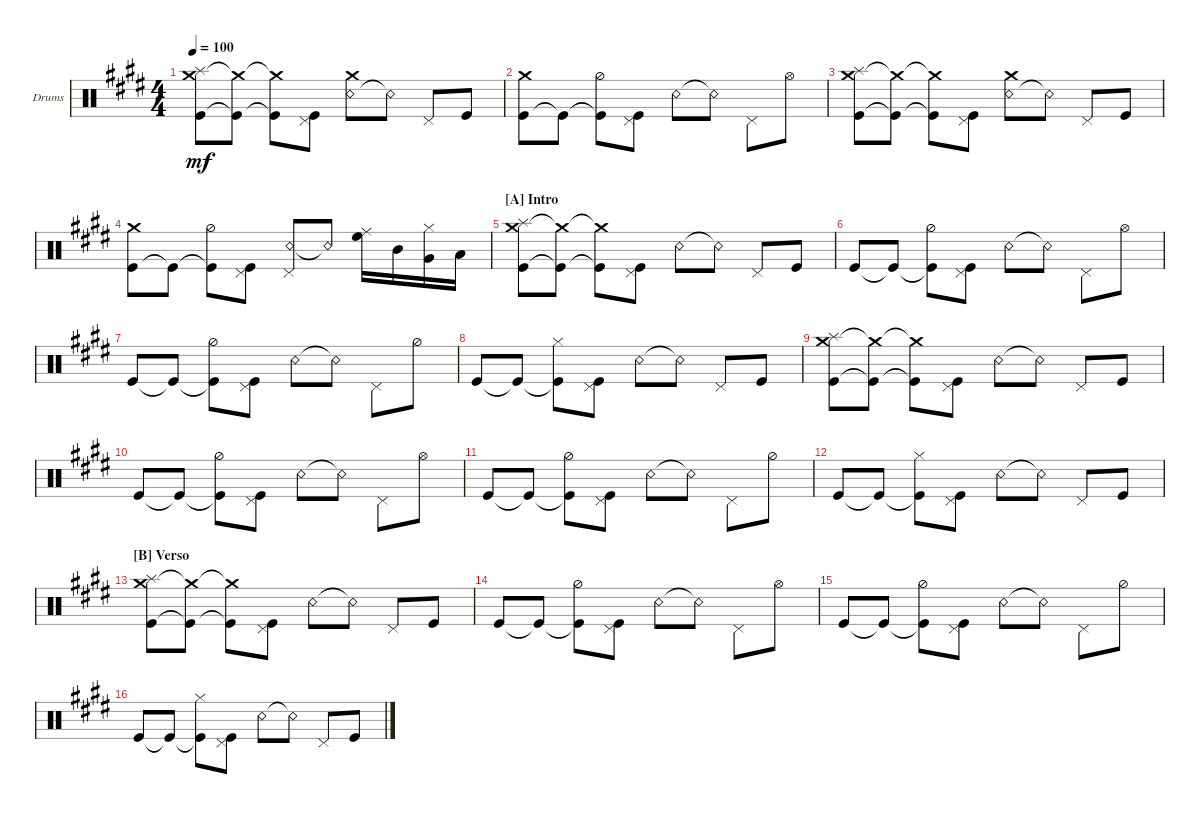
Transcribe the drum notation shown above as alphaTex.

\defaultSystemsLayout 4
\bracketExtendMode groupsimilarinstruments
\firstSystemTrackNameOrientation horizontal
\otherSystemsTrackNameOrientation horizontal
\track ("Drumkit" "Drums") {multiBarRest instrument percussion}
\staff {score}
\articulation defaults
\ts (4 4)
\tempo 100
\clef neutral
\ks e
("Kick (hit)" "Crash medium (hit)" "Splash (hit)").8{dy mf} ("Kick (hit)"{t} "Crash medium (hit)"{t}).8 ("Kick (hit)"{t} "Crash medium (hit)"{t}).8 ("Kick (hit)" "Pedal Hi-Hat (hit)").8 ("Snare (rim shot)" "Crash medium (hit)").8 "Snare (rim shot)"{t}.8 "Pedal Hi-Hat (hit)".8 "Kick (hit)".8 |
("Kick (hit)" "Crash medium (hit)").8 "Kick (hit)"{t}.8 ("Kick (hit)"{t} "Hi-Hat (half)").8 ("Kick (hit)" "Pedal Hi-Hat (hit)").8 "Snare (rim shot)".8 "Snare (rim shot)"{t}.8 "Pedal Hi-Hat (hit)".8 "Hi-Hat (open)".8 |
("Kick (hit)" "Crash medium (hit)" "Splash (hit)").8 ("Kick (hit)"{t} "Crash medium (hit)"{t}).8 ("Kick (hit)"{t} "Crash medium (hit)"{t}).8 ("Kick (hit)" "Pedal Hi-Hat (hit)").8 ("Snare (rim shot)" "Crash medium (hit)").8 "Snare (rim shot)"{t}.8 "Pedal Hi-Hat (hit)".8 "Kick (hit)".8 |
("Kick (hit)" "Crash medium (hit)").8 "Kick (hit)"{t}.8 ("Kick (hit)"{t} "Hi-Hat (half)").8 ("Kick (hit)" "Pedal Hi-Hat (hit)").8 ("Snare (rim shot)" "Pedal Hi-Hat (hit)").8 "Snare (rim shot)"{t}.8 ("High Floor Tom (hit)" "Ride (middle)").16 "Mid Tom (hit)".16 ("Very Low Tom (hit)" "Hi-Hat (closed)").16 "Low Tom (hit)".16 |
\section ("A" "Intro")
("Kick (hit)" "Crash medium (hit)" "Splash (hit)").8 ("Kick (hit)"{t} "Crash medium (hit)"{t}).8 ("Kick (hit)"{t} "Crash medium (hit)"{t}).8 ("Kick (hit)" "Pedal Hi-Hat (hit)").8 "Snare (rim shot)".8 "Snare (rim shot)"{t}.8 "Pedal Hi-Hat (hit)".8 "Kick (hit)".8 |
"Kick (hit)".8 "Kick (hit)"{t}.8 ("Kick (hit)"{t} "Hi-Hat (half)").8 ("Kick (hit)" "Pedal Hi-Hat (hit)").8 "Snare (rim shot)".8 "Snare (rim shot)"{t}.8 "Pedal Hi-Hat (hit)".8 "Hi-Hat (open)".8 |
"Kick (hit)".8 "Kick (hit)"{t}.8 ("Kick (hit)"{t} "Hi-Hat (half)").8 ("Kick (hit)" "Pedal Hi-Hat (hit)").8 "Snare (rim shot)".8 "Snare (rim shot)"{t}.8 "Pedal Hi-Hat (hit)".8 "Hi-Hat (half)".8 |
"Kick (hit)".8 "Kick (hit)"{t}.8 ("Kick (hit)"{t} "Hi-Hat (closed)").8 ("Kick (hit)" "Pedal Hi-Hat (hit)").8 "Snare (rim shot)".8 "Snare (rim shot)"{t}.8 "Pedal Hi-Hat (hit)".8 "Kick (hit)".8 |
("Kick (hit)" "Crash medium (hit)" "Splash (hit)").8 ("Kick (hit)"{t} "Crash medium (hit)"{t}).8 ("Kick (hit)"{t} "Crash medium (hit)"{t}).8 ("Kick (hit)" "Pedal Hi-Hat (hit)").8 "Snare (rim shot)".8 "Snare (rim shot)"{t}.8 "Pedal Hi-Hat (hit)".8 "Kick (hit)".8 |
"Kick (hit)".8 "Kick (hit)"{t}.8 ("Kick (hit)"{t} "Hi-Hat (half)").8 ("Kick (hit)" "Pedal Hi-Hat (hit)").8 "Snare (rim shot)".8 "Snare (rim shot)"{t}.8 "Pedal Hi-Hat (hit)".8 "Hi-Hat (open)".8 |
"Kick (hit)".8 "Kick (hit)"{t}.8 ("Kick (hit)"{t} "Hi-Hat (half)").8 ("Kick (hit)" "Pedal Hi-Hat (hit)").8 "Snare (rim shot)".8 "Snare (rim shot)"{t}.8 "Pedal Hi-Hat (hit)".8 "Hi-Hat (half)".8 |
"Kick (hit)".8 "Kick (hit)"{t}.8 ("Kick (hit)"{t} "Hi-Hat (closed)").8 ("Kick (hit)" "Pedal Hi-Hat (hit)").8 "Snare (rim shot)".8 "Snare (rim shot)"{t}.8 "Pedal Hi-Hat (hit)".8 "Kick (hit)".8 |
\section ("B" "Verso")
("Kick (hit)" "Crash medium (hit)" "Splash (hit)").8 ("Kick (hit)"{t} "Crash medium (hit)"{t}).8 ("Kick (hit)"{t} "Crash medium (hit)"{t}).8 ("Kick (hit)" "Pedal Hi-Hat (hit)").8 "Snare (rim shot)".8 "Snare (rim shot)"{t}.8 "Pedal Hi-Hat (hit)".8 "Kick (hit)".8 |
"Kick (hit)".8 "Kick (hit)"{t}.8 ("Kick (hit)"{t} "Hi-Hat (half)").8 ("Kick (hit)" "Pedal Hi-Hat (hit)").8 "Snare (rim shot)".8 "Snare (rim shot)"{t}.8 "Pedal Hi-Hat (hit)".8 "Hi-Hat (open)".8 |
"Kick (hit)".8 "Kick (hit)"{t}.8 ("Kick (hit)"{t} "Hi-Hat (half)").8 ("Kick (hit)" "Pedal Hi-Hat (hit)").8 "Snare (rim shot)".8 "Snare (rim shot)"{t}.8 "Pedal Hi-Hat (hit)".8 "Hi-Hat (half)".8 |
"Kick (hit)".8 "Kick (hit)"{t}.8 ("Kick (hit)"{t} "Hi-Hat (closed)").8 ("Kick (hit)" "Pedal Hi-Hat (hit)").8 "Snare (rim shot)".8 "Snare (rim shot)"{t}.8 "Pedal Hi-Hat (hit)".8 "Kick (hit)".8
